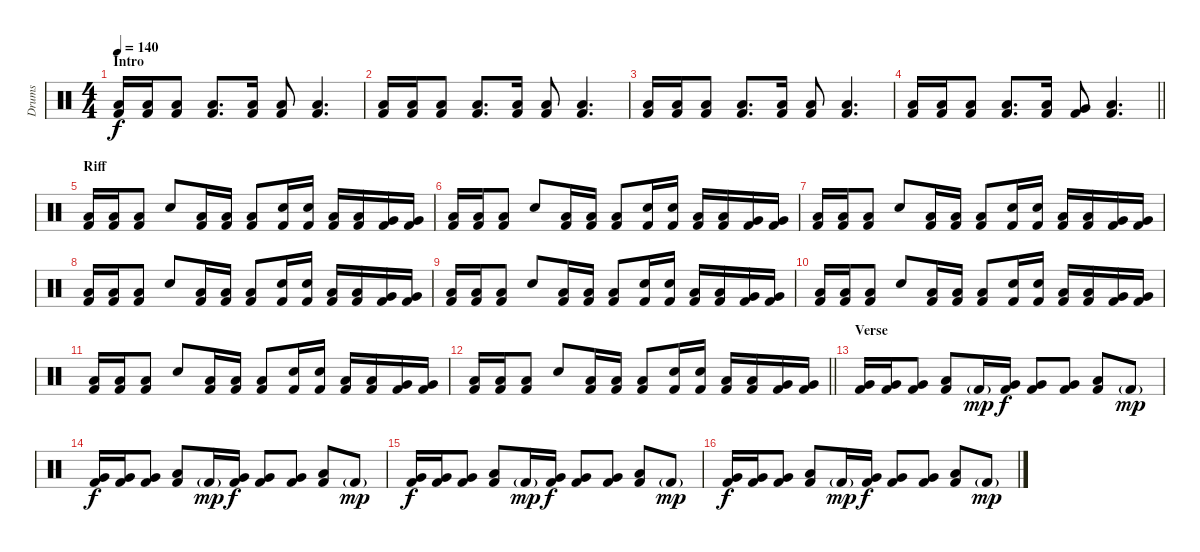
\track ("Drums" "Drums") {instrument percussion}
\staff {score}
\articulation defaults
\ts (4 4)
\section ("" "Intro")
\tempo 140
\clef neutral
\ks c
("Kick (hit) 2" "Low Tom (hit)").16{dy f} ("Kick (hit) 2" "Low Tom (hit)").16 ("Kick (hit) 2" "Low Tom (hit)").8 ("Kick (hit) 2" "Low Tom (hit)").8{d} ("Kick (hit) 2" "Low Tom (hit)").16 ("Kick (hit) 2" "Low Tom (hit)").8 ("Kick (hit) 2" "Low Tom (hit)").4{d} |
("Kick (hit) 2" "Low Tom (hit)").16 ("Kick (hit) 2" "Low Tom (hit)").16 ("Kick (hit) 2" "Low Tom (hit)").8 ("Kick (hit) 2" "Low Tom (hit)").8{d} ("Kick (hit) 2" "Low Tom (hit)").16 ("Kick (hit) 2" "Low Tom (hit)").8 ("Kick (hit) 2" "Low Tom (hit)").4{d} |
("Kick (hit) 2" "Low Tom (hit)").16 ("Kick (hit) 2" "Low Tom (hit)").16 ("Kick (hit) 2" "Low Tom (hit)").8 ("Kick (hit) 2" "Low Tom (hit)").8{d} ("Kick (hit) 2" "Low Tom (hit)").16 ("Kick (hit) 2" "Low Tom (hit)").8 ("Kick (hit) 2" "Low Tom (hit)").4{d} |
\barLineRight lightlight
("Kick (hit) 2" "Low Tom (hit)").16 ("Kick (hit) 2" "Low Tom (hit)").16 ("Kick (hit) 2" "Low Tom (hit)").8 ("Kick (hit) 2" "Low Tom (hit)").8{d} ("Kick (hit) 2" "Low Tom (hit)").16 ("Kick (hit) 2" "Very Low Tom (hit)").8 ("Kick (hit) 2" "Low Tom (hit)").4{d} |
\section ("" "Riff")
("Kick (hit) 2" "Low Tom (hit)").16 ("Kick (hit) 2" "Low Tom (hit)").16 ("Kick (hit) 2" "Low Tom (hit)").8 "Electric Snare (hit)".8 ("Kick (hit) 2" "Low Tom (hit)").16 ("Kick (hit) 2" "Low Tom (hit)").16 ("Kick (hit) 2" "Low Tom (hit)").8 ("Kick (hit) 2" "Electric Snare (hit)").16 ("Kick (hit) 2" "Electric Snare (hit)").16 ("Kick (hit) 2" "Low Tom (hit)").16 ("Kick (hit) 2" "Low Tom (hit)").16 ("Kick (hit) 2" "Very Low Tom (hit)").16 ("Kick (hit) 2" "Very Low Tom (hit)").16 |
("Kick (hit) 2" "Low Tom (hit)").16 ("Kick (hit) 2" "Low Tom (hit)").16 ("Kick (hit) 2" "Low Tom (hit)").8 "Electric Snare (hit)".8 ("Kick (hit) 2" "Low Tom (hit)").16 ("Kick (hit) 2" "Low Tom (hit)").16 ("Kick (hit) 2" "Low Tom (hit)").8 ("Kick (hit) 2" "Electric Snare (hit)").16 ("Kick (hit) 2" "Electric Snare (hit)").16 ("Kick (hit) 2" "Low Tom (hit)").16 ("Kick (hit) 2" "Low Tom (hit)").16 ("Kick (hit) 2" "Very Low Tom (hit)").16 ("Kick (hit) 2" "Very Low Tom (hit)").16 |
("Kick (hit) 2" "Low Tom (hit)").16 ("Kick (hit) 2" "Low Tom (hit)").16 ("Kick (hit) 2" "Low Tom (hit)").8 "Electric Snare (hit)".8 ("Kick (hit) 2" "Low Tom (hit)").16 ("Kick (hit) 2" "Low Tom (hit)").16 ("Kick (hit) 2" "Low Tom (hit)").8 ("Kick (hit) 2" "Electric Snare (hit)").16 ("Kick (hit) 2" "Electric Snare (hit)").16 ("Kick (hit) 2" "Low Tom (hit)").16 ("Kick (hit) 2" "Low Tom (hit)").16 ("Kick (hit) 2" "Very Low Tom (hit)").16 ("Kick (hit) 2" "Very Low Tom (hit)").16 |
("Kick (hit) 2" "Low Tom (hit)").16 ("Kick (hit) 2" "Low Tom (hit)").16 ("Kick (hit) 2" "Low Tom (hit)").8 "Electric Snare (hit)".8 ("Kick (hit) 2" "Low Tom (hit)").16 ("Kick (hit) 2" "Low Tom (hit)").16 ("Kick (hit) 2" "Low Tom (hit)").8 ("Kick (hit) 2" "Electric Snare (hit)").16 ("Kick (hit) 2" "Electric Snare (hit)").16 ("Kick (hit) 2" "Low Tom (hit)").16 ("Kick (hit) 2" "Low Tom (hit)").16 ("Kick (hit) 2" "Very Low Tom (hit)").16 ("Kick (hit) 2" "Very Low Tom (hit)").16 |
("Kick (hit) 2" "Low Tom (hit)").16 ("Kick (hit) 2" "Low Tom (hit)").16 ("Kick (hit) 2" "Low Tom (hit)").8 "Electric Snare (hit)".8 ("Kick (hit) 2" "Low Tom (hit)").16 ("Kick (hit) 2" "Low Tom (hit)").16 ("Kick (hit) 2" "Low Tom (hit)").8 ("Kick (hit) 2" "Electric Snare (hit)").16 ("Kick (hit) 2" "Electric Snare (hit)").16 ("Kick (hit) 2" "Low Tom (hit)").16 ("Kick (hit) 2" "Low Tom (hit)").16 ("Kick (hit) 2" "Very Low Tom (hit)").16 ("Kick (hit) 2" "Very Low Tom (hit)").16 |
("Kick (hit) 2" "Low Tom (hit)").16 ("Kick (hit) 2" "Low Tom (hit)").16 ("Kick (hit) 2" "Low Tom (hit)").8 "Electric Snare (hit)".8 ("Kick (hit) 2" "Low Tom (hit)").16 ("Kick (hit) 2" "Low Tom (hit)").16 ("Kick (hit) 2" "Low Tom (hit)").8 ("Kick (hit) 2" "Electric Snare (hit)").16 ("Kick (hit) 2" "Electric Snare (hit)").16 ("Kick (hit) 2" "Low Tom (hit)").16 ("Kick (hit) 2" "Low Tom (hit)").16 ("Kick (hit) 2" "Very Low Tom (hit)").16 ("Kick (hit) 2" "Very Low Tom (hit)").16 |
("Kick (hit) 2" "Low Tom (hit)").16 ("Kick (hit) 2" "Low Tom (hit)").16 ("Kick (hit) 2" "Low Tom (hit)").8 "Electric Snare (hit)".8 ("Kick (hit) 2" "Low Tom (hit)").16 ("Kick (hit) 2" "Low Tom (hit)").16 ("Kick (hit) 2" "Low Tom (hit)").8 ("Kick (hit) 2" "Electric Snare (hit)").16 ("Kick (hit) 2" "Electric Snare (hit)").16 ("Kick (hit) 2" "Low Tom (hit)").16 ("Kick (hit) 2" "Low Tom (hit)").16 ("Kick (hit) 2" "Very Low Tom (hit)").16 ("Kick (hit) 2" "Very Low Tom (hit)").16 |
\barLineRight lightlight
("Kick (hit) 2" "Low Tom (hit)").16 ("Kick (hit) 2" "Low Tom (hit)").16 ("Kick (hit) 2" "Low Tom (hit)").8 "Electric Snare (hit)".8 ("Kick (hit) 2" "Low Tom (hit)").16 ("Kick (hit) 2" "Low Tom (hit)").16 ("Kick (hit) 2" "Low Tom (hit)").8 ("Kick (hit) 2" "Electric Snare (hit)").16 ("Kick (hit) 2" "Electric Snare (hit)").16 ("Kick (hit) 2" "Low Tom (hit)").16 ("Kick (hit) 2" "Low Tom (hit)").16 ("Kick (hit) 2" "Very Low Tom (hit)").16 ("Kick (hit) 2" "Very Low Tom (hit)").16 |
\section ("" "Verse")
("Kick (hit) 2" "Very Low Tom (hit)").16{volume 10} ("Kick (hit) 2" "Very Low Tom (hit)").16 ("Kick (hit) 2" "Very Low Tom (hit)").8 ("Kick (hit) 2" "Low Floor Tom (hit)").8 "Kick (hit) 2"{g}.16{dy mp} ("Kick (hit) 2" "Very Low Tom (hit)").16{dy f} ("Kick (hit) 2" "Very Low Tom (hit)").8 ("Kick (hit) 2" "Very Low Tom (hit)").8 ("Kick (hit) 2" "Low Floor Tom (hit)").8 "Kick (hit) 2"{g}.8{dy mp} |
("Kick (hit) 2" "Very Low Tom (hit)").16{dy f} ("Kick (hit) 2" "Very Low Tom (hit)").16 ("Kick (hit) 2" "Very Low Tom (hit)").8 ("Kick (hit) 2" "Low Floor Tom (hit)").8 "Kick (hit) 2"{g}.16{dy mp} ("Kick (hit) 2" "Very Low Tom (hit)").16{dy f} ("Kick (hit) 2" "Very Low Tom (hit)").8 ("Kick (hit) 2" "Very Low Tom (hit)").8 ("Kick (hit) 2" "Low Floor Tom (hit)").8 "Kick (hit) 2"{g}.8{dy mp} |
("Kick (hit) 2" "Very Low Tom (hit)").16{dy f} ("Kick (hit) 2" "Very Low Tom (hit)").16 ("Kick (hit) 2" "Very Low Tom (hit)").8 ("Kick (hit) 2" "Low Floor Tom (hit)").8 "Kick (hit) 2"{g}.16{dy mp} ("Kick (hit) 2" "Very Low Tom (hit)").16{dy f} ("Kick (hit) 2" "Very Low Tom (hit)").8 ("Kick (hit) 2" "Very Low Tom (hit)").8 ("Kick (hit) 2" "Low Floor Tom (hit)").8 "Kick (hit) 2"{g}.8{dy mp} |
("Kick (hit) 2" "Very Low Tom (hit)").16{dy f} ("Kick (hit) 2" "Very Low Tom (hit)").16 ("Kick (hit) 2" "Very Low Tom (hit)").8 ("Kick (hit) 2" "Low Floor Tom (hit)").8 "Kick (hit) 2"{g}.16{dy mp} ("Kick (hit) 2" "Very Low Tom (hit)").16{dy f} ("Kick (hit) 2" "Very Low Tom (hit)").8 ("Kick (hit) 2" "Very Low Tom (hit)").8 ("Kick (hit) 2" "Low Floor Tom (hit)").8 "Kick (hit) 2"{g}.8{dy mp}
